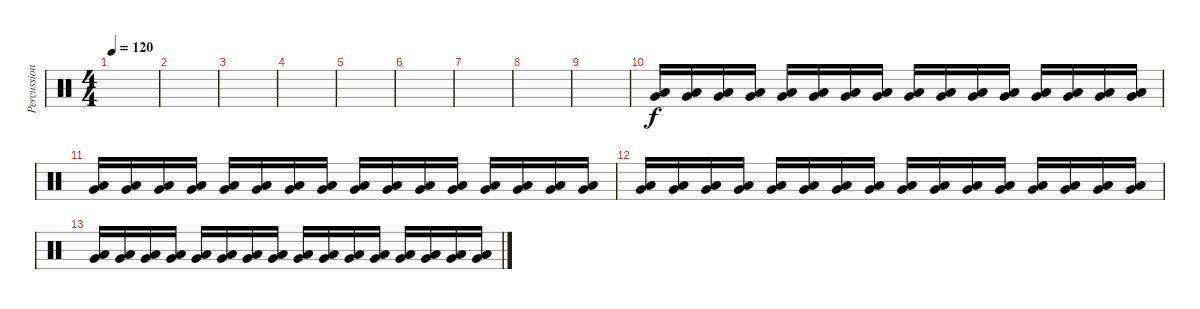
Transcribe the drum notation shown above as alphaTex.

\track ("Percussion" "Percussion") {instrument percussion}
\staff {score}
\articulation defaults
\ts (4 4)
\tempo 120
\clef neutral
\ks c
|
|
|
|
|
|
|
|
|
("Low Tom (hit)" "Very Low Tom (hit)").16 ("Low Tom (hit)" "Very Low Tom (hit)").16 ("Low Tom (hit)" "Very Low Tom (hit)").16 ("Low Tom (hit)" "Very Low Tom (hit)").16 ("Low Tom (hit)" "Very Low Tom (hit)").16 ("Low Tom (hit)" "Very Low Tom (hit)").16 ("Low Tom (hit)" "Very Low Tom (hit)").16 ("Low Tom (hit)" "Very Low Tom (hit)").16 ("Low Tom (hit)" "Very Low Tom (hit)").16 ("Low Tom (hit)" "Very Low Tom (hit)").16 ("Low Tom (hit)" "Very Low Tom (hit)").16 ("Low Tom (hit)" "Very Low Tom (hit)").16 ("Low Tom (hit)" "Very Low Tom (hit)").16 ("Low Tom (hit)" "Very Low Tom (hit)").16 ("Low Tom (hit)" "Very Low Tom (hit)").16 ("Low Tom (hit)" "Very Low Tom (hit)").16 |
("Low Tom (hit)" "Very Low Tom (hit)").16 ("Low Tom (hit)" "Very Low Tom (hit)").16 ("Low Tom (hit)" "Very Low Tom (hit)").16 ("Low Tom (hit)" "Very Low Tom (hit)").16 ("Low Tom (hit)" "Very Low Tom (hit)").16 ("Low Tom (hit)" "Very Low Tom (hit)").16 ("Low Tom (hit)" "Very Low Tom (hit)").16 ("Low Tom (hit)" "Very Low Tom (hit)").16 ("Low Tom (hit)" "Very Low Tom (hit)").16 ("Low Tom (hit)" "Very Low Tom (hit)").16 ("Low Tom (hit)" "Very Low Tom (hit)").16 ("Low Tom (hit)" "Very Low Tom (hit)").16 ("Low Tom (hit)" "Very Low Tom (hit)").16 ("Low Tom (hit)" "Very Low Tom (hit)").16 ("Low Tom (hit)" "Very Low Tom (hit)").16 ("Low Tom (hit)" "Very Low Tom (hit)").16 |
("Low Tom (hit)" "Very Low Tom (hit)").16 ("Low Tom (hit)" "Very Low Tom (hit)").16 ("Low Tom (hit)" "Very Low Tom (hit)").16 ("Low Tom (hit)" "Very Low Tom (hit)").16 ("Low Tom (hit)" "Very Low Tom (hit)").16 ("Low Tom (hit)" "Very Low Tom (hit)").16 ("Low Tom (hit)" "Very Low Tom (hit)").16 ("Low Tom (hit)" "Very Low Tom (hit)").16 ("Low Tom (hit)" "Very Low Tom (hit)").16 ("Low Tom (hit)" "Very Low Tom (hit)").16 ("Low Tom (hit)" "Very Low Tom (hit)").16 ("Low Tom (hit)" "Very Low Tom (hit)").16 ("Low Tom (hit)" "Very Low Tom (hit)").16 ("Low Tom (hit)" "Very Low Tom (hit)").16 ("Low Tom (hit)" "Very Low Tom (hit)").16 ("Low Tom (hit)" "Very Low Tom (hit)").16 |
("Low Tom (hit)" "Very Low Tom (hit)").16 ("Low Tom (hit)" "Very Low Tom (hit)").16 ("Low Tom (hit)" "Very Low Tom (hit)").16 ("Low Tom (hit)" "Very Low Tom (hit)").16 ("Low Tom (hit)" "Very Low Tom (hit)").16 ("Low Tom (hit)" "Very Low Tom (hit)").16 ("Low Tom (hit)" "Very Low Tom (hit)").16 ("Low Tom (hit)" "Very Low Tom (hit)").16 ("Low Tom (hit)" "Very Low Tom (hit)").16 ("Low Tom (hit)" "Very Low Tom (hit)").16 ("Low Tom (hit)" "Very Low Tom (hit)").16 ("Low Tom (hit)" "Very Low Tom (hit)").16 ("Low Tom (hit)" "Very Low Tom (hit)").16 ("Low Tom (hit)" "Very Low Tom (hit)").16 ("Low Tom (hit)" "Very Low Tom (hit)").16 ("Low Tom (hit)" "Very Low Tom (hit)").16
